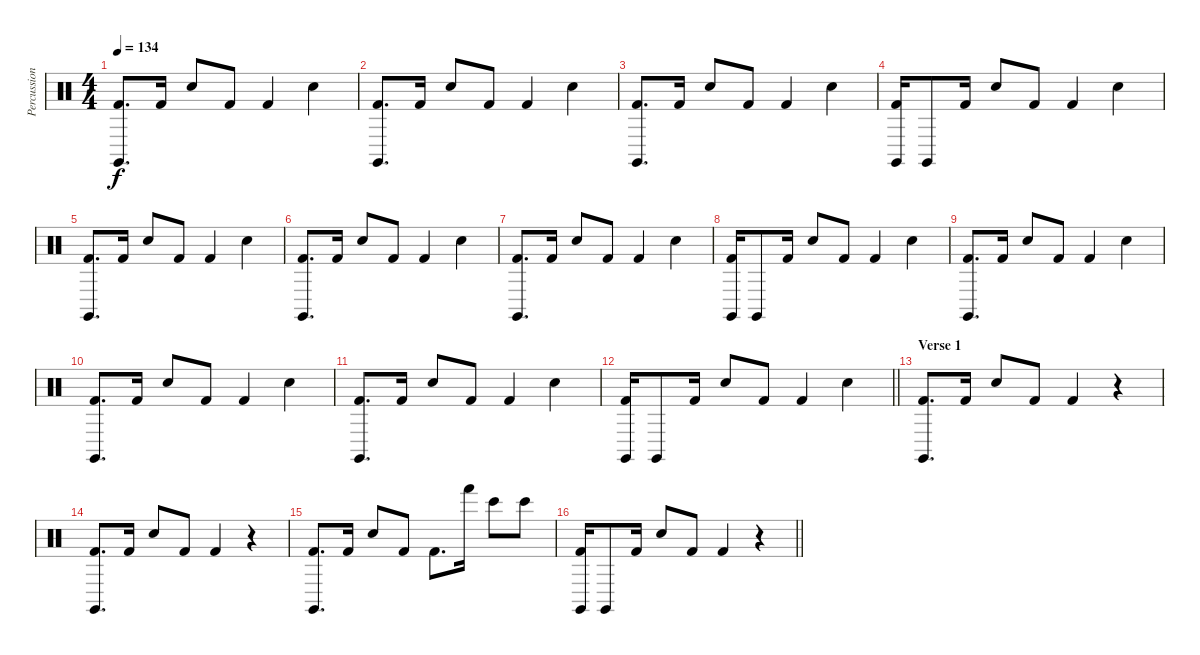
\track ("Percussion" "Percussion") {instrument percussion}
\staff {score}
\articulation defaults
\ts (4 4)
\tempo 134
\clef neutral
\ks c
("Claves (hit)" "Kick (hit) 2").8{d dy f} "Kick (hit) 2".16 "Snare (hit) 2".8 "Kick (hit) 2".8 "Kick (hit) 2".4 "Snare (hit) 2".4 |
("Claves (hit)" "Kick (hit) 2").8{d} "Kick (hit) 2".16 "Snare (hit) 2".8 "Kick (hit) 2".8 "Kick (hit) 2".4 "Snare (hit) 2".4 |
("Claves (hit)" "Kick (hit) 2").8{d} "Kick (hit) 2".16 "Snare (hit) 2".8 "Kick (hit) 2".8 "Kick (hit) 2".4 "Snare (hit) 2".4 |
("Claves (hit)" "Kick (hit) 2").16 "Claves (hit)".8 "Kick (hit) 2".16 "Snare (hit) 2".8 "Kick (hit) 2".8 "Kick (hit) 2".4 "Snare (hit) 2".4 |
("Claves (hit)" "Kick (hit) 2").8{d} "Kick (hit) 2".16 "Snare (hit) 2".8 "Kick (hit) 2".8 "Kick (hit) 2".4 "Snare (hit) 2".4 |
("Claves (hit)" "Kick (hit) 2").8{d} "Kick (hit) 2".16 "Snare (hit) 2".8 "Kick (hit) 2".8 "Kick (hit) 2".4 "Snare (hit) 2".4 |
("Claves (hit)" "Kick (hit) 2").8{d} "Kick (hit) 2".16 "Snare (hit) 2".8 "Kick (hit) 2".8 "Kick (hit) 2".4 "Snare (hit) 2".4 |
("Claves (hit)" "Kick (hit) 2").16 "Claves (hit)".8 "Kick (hit) 2".16 "Snare (hit) 2".8 "Kick (hit) 2".8 "Kick (hit) 2".4 "Snare (hit) 2".4 |
("Claves (hit)" "Kick (hit) 2").8{d} "Kick (hit) 2".16 "Snare (hit) 2".8 "Kick (hit) 2".8 "Kick (hit) 2".4 "Snare (hit) 2".4 |
("Claves (hit)" "Kick (hit) 2").8{d} "Kick (hit) 2".16 "Snare (hit) 2".8 "Kick (hit) 2".8 "Kick (hit) 2".4 "Snare (hit) 2".4 |
("Claves (hit)" "Kick (hit) 2").8{d} "Kick (hit) 2".16 "Snare (hit) 2".8 "Kick (hit) 2".8 "Kick (hit) 2".4 "Snare (hit) 2".4 |
\barLineRight lightlight
("Claves (hit)" "Kick (hit) 2").16 "Claves (hit)".8 "Kick (hit) 2".16 "Snare (hit) 2".8 "Kick (hit) 2".8 "Kick (hit) 2".4 "Snare (hit) 2".4 |
\section ("" "Verse 1")
("Claves (hit)" "Kick (hit) 2").8{d} "Kick (hit) 2".16 "Snare (hit) 2".8 "Kick (hit) 2".8 "Kick (hit) 2".4 r.4 |
("Claves (hit)" "Kick (hit) 2").8{d} "Kick (hit) 2".16 "Snare (hit) 2".8 "Kick (hit) 2".8 "Kick (hit) 2".4 r.4 |
("Claves (hit)" "Kick (hit) 2").8{d} "Kick (hit) 2".16 "Snare (hit) 2".8 "Kick (hit) 2".8 "Kick (hit) 2".8{d} "Hand (hit)".16 "Bongo High (hit)".8 "Bongo High (hit)".8 |
\barLineRight lightlight
("Claves (hit)" "Kick (hit) 2").16 "Claves (hit)".8 "Kick (hit) 2".16 "Snare (hit) 2".8 "Kick (hit) 2".8 "Kick (hit) 2".4 r.4
